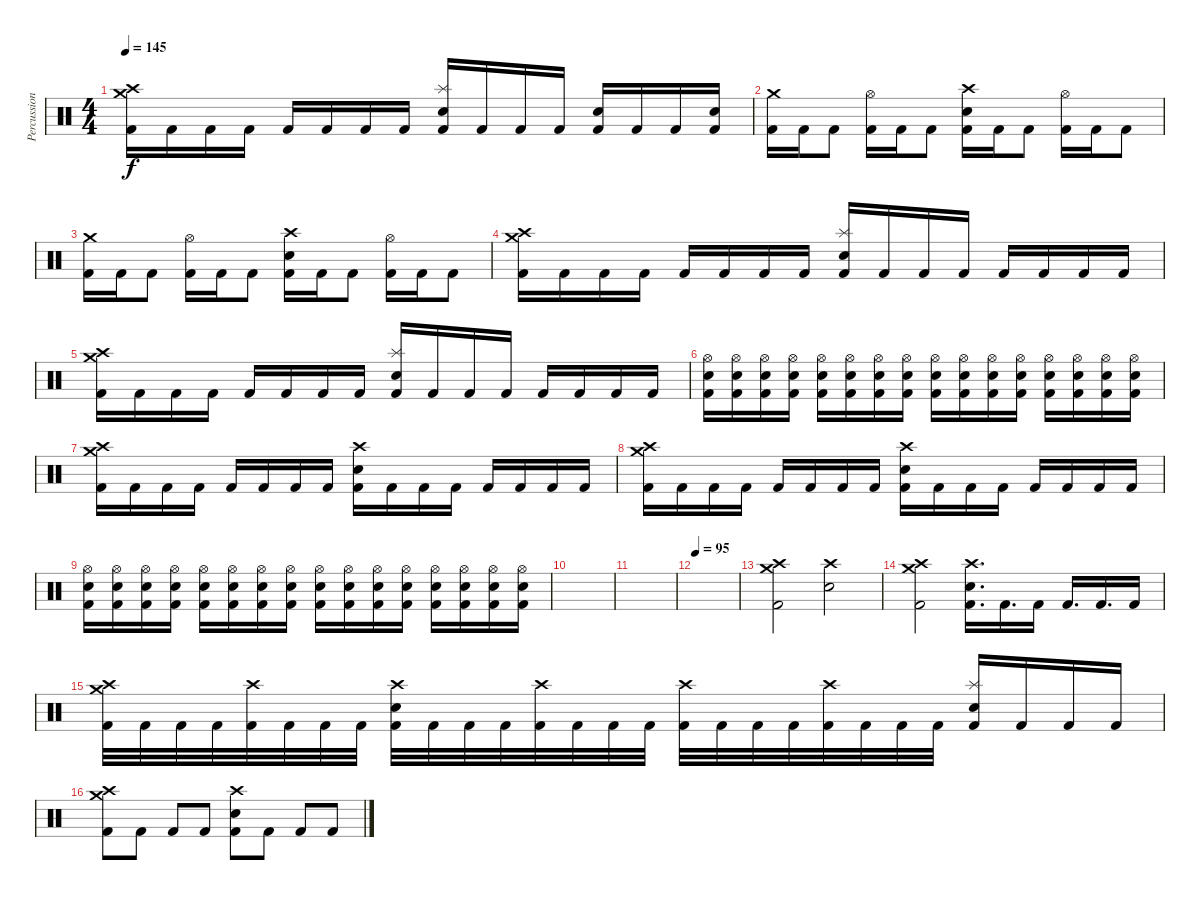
\track ("Percussion" "Percussion") {instrument percussion}
\staff {score}
\articulation defaults
\ts (4 4)
\tempo 145
\clef neutral
\ks c
("Crash high (hit)" "Crash medium (hit)" "Kick (hit) 2").16{dy f} "Kick (hit) 2".16 "Kick (hit) 2".16 "Kick (hit) 2".16 "Kick (hit) 2".16 "Kick (hit) 2".16 "Kick (hit) 2".16 "Kick (hit) 2".16 ("Splash (hit)" "Electric Snare (hit)" "Kick (hit) 2").16 "Kick (hit) 2".16 "Kick (hit) 2".16 "Kick (hit) 2".16 ("Electric Snare (hit)" "Kick (hit) 2").16 "Kick (hit) 2".16 "Kick (hit) 2".16 ("Electric Snare (hit)" "Kick (hit) 2").16 |
("Crash medium (hit)" "Kick (hit) 2").16 "Kick (hit) 2".16 "Kick (hit) 2".8 ("Hi-Hat (open)" "Kick (hit) 2").16 "Kick (hit) 2".16 "Kick (hit) 2".8 ("Crash high (hit)" "Electric Snare (hit)" "Kick (hit) 2").16 "Kick (hit) 2".16 "Kick (hit) 2".8 ("Hi-Hat (open)" "Kick (hit) 2").16 "Kick (hit) 2".16 "Kick (hit) 2".8 |
("Crash medium (hit)" "Kick (hit) 2").16 "Kick (hit) 2".16 "Kick (hit) 2".8 ("Hi-Hat (open)" "Kick (hit) 2").16 "Kick (hit) 2".16 "Kick (hit) 2".8 ("Crash high (hit)" "Electric Snare (hit)" "Kick (hit) 2").16 "Kick (hit) 2".16 "Kick (hit) 2".8 ("Hi-Hat (open)" "Kick (hit) 2").16 "Kick (hit) 2".16 "Kick (hit) 2".8 |
("Crash high (hit)" "Crash medium (hit)" "Kick (hit) 2").16 "Kick (hit) 2".16 "Kick (hit) 2".16 "Kick (hit) 2".16 "Kick (hit) 2".16 "Kick (hit) 2".16 "Kick (hit) 2".16 "Kick (hit) 2".16 ("Splash (hit)" "Electric Snare (hit)" "Kick (hit) 2").16 "Kick (hit) 2".16 "Kick (hit) 2".16 "Kick (hit) 2".16 "Kick (hit) 2".16 "Kick (hit) 2".16 "Kick (hit) 2".16 "Kick (hit) 2".16 |
("Crash high (hit)" "Crash medium (hit)" "Kick (hit) 2").16 "Kick (hit) 2".16 "Kick (hit) 2".16 "Kick (hit) 2".16 "Kick (hit) 2".16 "Kick (hit) 2".16 "Kick (hit) 2".16 "Kick (hit) 2".16 ("Splash (hit)" "Electric Snare (hit)" "Kick (hit) 2").16 "Kick (hit) 2".16 "Kick (hit) 2".16 "Kick (hit) 2".16 "Kick (hit) 2".16 "Kick (hit) 2".16 "Kick (hit) 2".16 "Kick (hit) 2".16 |
("Hi-Hat (open)" "Electric Snare (hit)" "Kick (hit) 2").16 ("Hi-Hat (open)" "Electric Snare (hit)" "Kick (hit) 2").16 ("Hi-Hat (open)" "Electric Snare (hit)" "Kick (hit) 2").16 ("Hi-Hat (open)" "Electric Snare (hit)" "Kick (hit) 2").16 ("Hi-Hat (open)" "Electric Snare (hit)" "Kick (hit) 2").16 ("Hi-Hat (open)" "Electric Snare (hit)" "Kick (hit) 2").16 ("Hi-Hat (open)" "Electric Snare (hit)" "Kick (hit) 2").16 ("Hi-Hat (open)" "Electric Snare (hit)" "Kick (hit) 2").16 ("Hi-Hat (open)" "Electric Snare (hit)" "Kick (hit) 2").16 ("Hi-Hat (open)" "Electric Snare (hit)" "Kick (hit) 2").16 ("Hi-Hat (open)" "Electric Snare (hit)" "Kick (hit) 2").16 ("Hi-Hat (open)" "Electric Snare (hit)" "Kick (hit) 2").16 ("Hi-Hat (open)" "Electric Snare (hit)" "Kick (hit) 2").16 ("Hi-Hat (open)" "Electric Snare (hit)" "Kick (hit) 2").16 ("Hi-Hat (open)" "Electric Snare (hit)" "Kick (hit) 2").16 ("Hi-Hat (open)" "Electric Snare (hit)" "Kick (hit) 2").16 |
("Crash high (hit)" "Crash medium (hit)" "Kick (hit) 2").16 "Kick (hit) 2".16 "Kick (hit) 2".16 "Kick (hit) 2".16 "Kick (hit) 2".16 "Kick (hit) 2".16 "Kick (hit) 2".16 "Kick (hit) 2".16 ("Crash high (hit)" "Electric Snare (hit)" "Kick (hit) 2").16 "Kick (hit) 2".16 "Kick (hit) 2".16 "Kick (hit) 2".16 "Kick (hit) 2".16 "Kick (hit) 2".16 "Kick (hit) 2".16 "Kick (hit) 2".16 |
("Crash high (hit)" "Crash medium (hit)" "Kick (hit) 2").16 "Kick (hit) 2".16 "Kick (hit) 2".16 "Kick (hit) 2".16 "Kick (hit) 2".16 "Kick (hit) 2".16 "Kick (hit) 2".16 "Kick (hit) 2".16 ("Crash high (hit)" "Electric Snare (hit)" "Kick (hit) 2").16 "Kick (hit) 2".16 "Kick (hit) 2".16 "Kick (hit) 2".16 "Kick (hit) 2".16 "Kick (hit) 2".16 "Kick (hit) 2".16 "Kick (hit) 2".16 |
("Hi-Hat (open)" "Electric Snare (hit)" "Kick (hit) 2").16 ("Hi-Hat (open)" "Electric Snare (hit)" "Kick (hit) 2").16 ("Hi-Hat (open)" "Electric Snare (hit)" "Kick (hit) 2").16 ("Hi-Hat (open)" "Electric Snare (hit)" "Kick (hit) 2").16 ("Hi-Hat (open)" "Electric Snare (hit)" "Kick (hit) 2").16 ("Hi-Hat (open)" "Electric Snare (hit)" "Kick (hit) 2").16 ("Hi-Hat (open)" "Electric Snare (hit)" "Kick (hit) 2").16 ("Hi-Hat (open)" "Electric Snare (hit)" "Kick (hit) 2").16 ("Hi-Hat (open)" "Electric Snare (hit)" "Kick (hit) 2").16 ("Hi-Hat (open)" "Electric Snare (hit)" "Kick (hit) 2").16 ("Hi-Hat (open)" "Electric Snare (hit)" "Kick (hit) 2").16 ("Hi-Hat (open)" "Electric Snare (hit)" "Kick (hit) 2").16 ("Hi-Hat (open)" "Electric Snare (hit)" "Kick (hit) 2").16 ("Hi-Hat (open)" "Electric Snare (hit)" "Kick (hit) 2").16 ("Hi-Hat (open)" "Electric Snare (hit)" "Kick (hit) 2").16 ("Hi-Hat (open)" "Electric Snare (hit)" "Kick (hit) 2").16 |
|
|
\tempo 95
|
("Crash medium (hit)" "Crash high (hit)" "Kick (hit) 2").2 ("Crash high (hit)" "Electric Snare (hit)").2 |
("Crash medium (hit)" "Crash high (hit)" "Kick (hit) 2").2 ("Crash high (hit)" "Electric Snare (hit)" "Kick (hit) 2").16{d} "Kick (hit) 2".16{d} "Kick (hit) 2".16 "Kick (hit) 2".16{d} "Kick (hit) 2".16{d} "Kick (hit) 2".16 |
("Crash high (hit)" "Crash medium (hit)" "Kick (hit) 2").32 "Kick (hit) 2".32 "Kick (hit) 2".32 "Kick (hit) 2".32 ("Crash high (hit)" "Kick (hit) 2").32 "Kick (hit) 2".32 "Kick (hit) 2".32 "Kick (hit) 2".32 ("Crash high (hit)" "Electric Snare (hit)" "Kick (hit) 2").32 "Kick (hit) 2".32 "Kick (hit) 2".32 "Kick (hit) 2".32 ("Crash high (hit)" "Kick (hit) 2").32 "Kick (hit) 2".32 "Kick (hit) 2".32 "Kick (hit) 2".32 ("Crash high (hit)" "Kick (hit) 2").32 "Kick (hit) 2".32 "Kick (hit) 2".32 "Kick (hit) 2".32 ("Crash high (hit)" "Kick (hit) 2").32 "Kick (hit) 2".32 "Kick (hit) 2".32 "Kick (hit) 2".32 ("Splash (hit)" "Electric Snare (hit)" "Kick (hit) 2").16 "Kick (hit) 2".16 "Kick (hit) 2".16 "Kick (hit) 2".16 |
("Crash medium (hit)" "Crash high (hit)" "Kick (hit) 2").8 "Kick (hit) 2".8 "Kick (hit) 2".8 "Kick (hit) 2".8 ("Crash high (hit)" "Electric Snare (hit)" "Kick (hit) 2").8 "Kick (hit) 2".8 "Kick (hit) 2".8 "Kick (hit) 2".8
